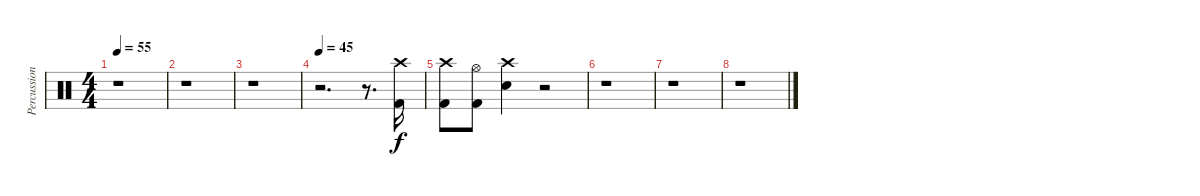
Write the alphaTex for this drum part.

\track ("Percussion" "Percussion") {instrument percussion}
\staff {score}
\articulation defaults
\ts (4 4)
\tempo 55
\clef neutral
\ks c
r.1{dy f} |
r.1 |
r.1 |
\tempo 45
r.2{d} r.8{d} ("Crash high (hit)" "Kick (hit) 2").16 |
("Crash high (hit)" "Kick (hit) 2").8 ("Hi-Hat (open)" "Kick (hit) 2").8 ("Crash high (hit)" "Snare (hit) 2").4 r.2 |
r.1 |
r.1 |
r.1
